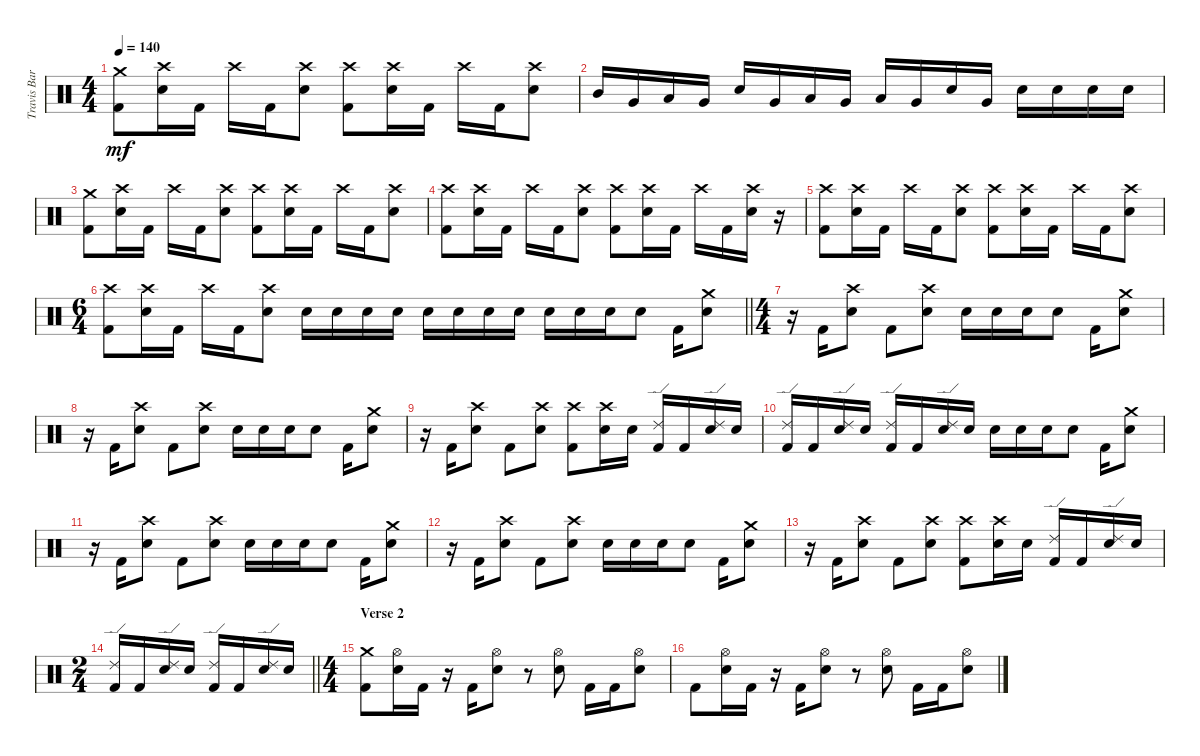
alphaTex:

\track ("Travis Barker" "Travis Bar") {instrument percussion}
\staff {score}
\articulation defaults
\ts (4 4)
\tempo 140
\clef neutral
\ks c
("Crash medium (hit)" "Kick (hit) 2").8{dy mf} ("Crash high (hit)" "Electric Snare (hit)").16 "Kick (hit) 2".16 "Crash high (hit)".16 "Kick (hit) 2".16 ("Crash high (hit)" "Electric Snare (hit)").8 ("Crash high (hit)" "Kick (hit) 2").8 ("Crash high (hit)" "Electric Snare (hit)").16 "Kick (hit) 2".16 "Crash high (hit)".16 "Kick (hit) 2".16 ("Crash high (hit)" "Electric Snare (hit)").8 |
"Mid Tom (hit)".16 "Very Low Tom (hit)".16 "Low Tom (hit)".16 "Very Low Tom (hit)".16 "Electric Snare (hit)".16 "Very Low Tom (hit)".16 "Low Tom (hit)".16 "Very Low Tom (hit)".16 "Low Tom (hit)".16 "Very Low Tom (hit)".16 "Electric Snare (hit)".16 "Very Low Tom (hit)".16 "Electric Snare (hit)".16 "Electric Snare (hit)".16 "Electric Snare (hit)".16 "Electric Snare (hit)".16 |
("Crash medium (hit)" "Kick (hit) 2").8 ("Crash high (hit)" "Electric Snare (hit)").16 "Kick (hit) 2".16 "Crash high (hit)".16 "Kick (hit) 2".16 ("Crash high (hit)" "Electric Snare (hit)").8 ("Crash high (hit)" "Kick (hit) 2").8 ("Crash high (hit)" "Electric Snare (hit)").16 "Kick (hit) 2".16 "Crash high (hit)".16 "Kick (hit) 2".16 ("Crash high (hit)" "Electric Snare (hit)").8 |
("Crash high (hit)" "Kick (hit) 2").8 ("Crash high (hit)" "Electric Snare (hit)").16 "Kick (hit) 2".16 "Crash high (hit)".16 "Kick (hit) 2".16 ("Crash high (hit)" "Electric Snare (hit)").8 ("Crash high (hit)" "Kick (hit) 2").8 ("Crash high (hit)" "Electric Snare (hit)").16 "Kick (hit) 2".16 "Crash high (hit)".16 "Kick (hit) 2".16 ("Crash high (hit)" "Electric Snare (hit)").16 r.16 |
("Crash high (hit)" "Kick (hit) 2").8 ("Crash high (hit)" "Electric Snare (hit)").16 "Kick (hit) 2".16 "Crash high (hit)".16 "Kick (hit) 2".16 ("Crash high (hit)" "Electric Snare (hit)").8 ("Crash high (hit)" "Kick (hit) 2").8 ("Crash high (hit)" "Electric Snare (hit)").16 "Kick (hit) 2".16 "Crash high (hit)".16 "Kick (hit) 2".16 ("Crash high (hit)" "Electric Snare (hit)").8 |
\ts (6 4)
\barLineRight lightlight
("Crash high (hit)" "Kick (hit) 2").8 ("Crash high (hit)" "Electric Snare (hit)").16 "Kick (hit) 2".16 "Crash high (hit)".16 "Kick (hit) 2".16 ("Crash high (hit)" "Electric Snare (hit)").8 "Electric Snare (hit)".16 "Electric Snare (hit)".16 "Electric Snare (hit)".16 "Electric Snare (hit)".16 "Electric Snare (hit)".16 "Electric Snare (hit)".16 "Electric Snare (hit)".16 "Electric Snare (hit)".16 "Electric Snare (hit)".16 "Electric Snare (hit)".16 "Electric Snare (hit)".16 "Electric Snare (hit)".8 "Kick (hit) 2".16 ("Crash medium (hit)" "Electric Snare (hit)").8 |
\ts (4 4)
\section ("" "")
r.16 "Kick (hit) 2".16 ("Crash high (hit)" "Electric Snare (hit)").8 "Kick (hit) 2".8 ("Crash high (hit)" "Electric Snare (hit)").8 "Electric Snare (hit)".16 "Electric Snare (hit)".16 "Electric Snare (hit)".16 "Electric Snare (hit)".8 "Kick (hit) 2".16 ("Crash medium (hit)" "Electric Snare (hit)").8 |
r.16 "Kick (hit) 2".16 ("Crash high (hit)" "Electric Snare (hit)").8 "Kick (hit) 2".8 ("Crash high (hit)" "Electric Snare (hit)").8 "Electric Snare (hit)".16 "Electric Snare (hit)".16 "Electric Snare (hit)".16 "Electric Snare (hit)".8 "Kick (hit) 2".16 ("Crash medium (hit)" "Electric Snare (hit)").8 |
r.16 "Kick (hit) 2".16 ("Crash high (hit)" "Electric Snare (hit)").8 "Kick (hit) 2".8 ("Crash high (hit)" "Electric Snare (hit)").8 ("Crash high (hit)" "Kick (hit) 2").8 ("Crash high (hit)" "Electric Snare (hit)").16 "Electric Snare (hit)".16 ("Ride (edge) 2" "Kick (hit) 2").16 "Kick (hit) 2".16 ("Ride (edge) 2" "Electric Snare (hit)").16 "Electric Snare (hit)".16 |
("Ride (edge) 2" "Kick (hit) 2").16 "Kick (hit) 2".16 ("Ride (edge) 2" "Electric Snare (hit)").16 "Electric Snare (hit)".16 ("Ride (edge) 2" "Kick (hit) 2").16 "Kick (hit) 2".16 ("Ride (edge) 2" "Electric Snare (hit)").16 "Electric Snare (hit)".16 "Electric Snare (hit)".16 "Electric Snare (hit)".16 "Electric Snare (hit)".16 "Electric Snare (hit)".8 "Kick (hit) 2".16 ("Crash medium (hit)" "Electric Snare (hit)").8 |
r.16 "Kick (hit) 2".16 ("Crash high (hit)" "Electric Snare (hit)").8 "Kick (hit) 2".8 ("Crash high (hit)" "Electric Snare (hit)").8 "Electric Snare (hit)".16 "Electric Snare (hit)".16 "Electric Snare (hit)".16 "Electric Snare (hit)".8 "Kick (hit) 2".16 ("Crash medium (hit)" "Electric Snare (hit)").8 |
r.16 "Kick (hit) 2".16 ("Crash high (hit)" "Electric Snare (hit)").8 "Kick (hit) 2".8 ("Crash high (hit)" "Electric Snare (hit)").8 "Electric Snare (hit)".16 "Electric Snare (hit)".16 "Electric Snare (hit)".16 "Electric Snare (hit)".8 "Kick (hit) 2".16 ("Crash medium (hit)" "Electric Snare (hit)").8 |
r.16 "Kick (hit) 2".16 ("Crash high (hit)" "Electric Snare (hit)").8 "Kick (hit) 2".8 ("Crash high (hit)" "Electric Snare (hit)").8 ("Crash high (hit)" "Kick (hit) 2").8 ("Crash high (hit)" "Electric Snare (hit)").16 "Electric Snare (hit)".16 ("Ride (edge) 2" "Kick (hit) 2").16 "Kick (hit) 2".16 ("Ride (edge) 2" "Electric Snare (hit)").16 "Electric Snare (hit)".16 |
\ts (2 4)
\barLineRight lightlight
("Ride (edge) 2" "Kick (hit) 2").16 "Kick (hit) 2".16 ("Ride (edge) 2" "Electric Snare (hit)").16 "Electric Snare (hit)".16 ("Ride (edge) 2" "Kick (hit) 2").16 "Kick (hit) 2".16 ("Ride (edge) 2" "Electric Snare (hit)").16 "Electric Snare (hit)".16 |
\ts (4 4)
\section ("" "Verse 2")
("Crash medium (hit)" "Kick (hit) 2").8 ("Hi-Hat (open)" "Electric Snare (hit)").16 "Kick (hit) 2".16 r.16 "Kick (hit) 2".16 ("Hi-Hat (open)" "Electric Snare (hit)").8 r.8 ("Hi-Hat (open)" "Electric Snare (hit)").8 "Kick (hit) 2".16 "Kick (hit) 2".16 ("Hi-Hat (open)" "Electric Snare (hit)").8 |
"Kick (hit) 2".8 ("Hi-Hat (open)" "Electric Snare (hit)").16 "Kick (hit) 2".16 r.16 "Kick (hit) 2".16 ("Hi-Hat (open)" "Electric Snare (hit)").8 r.8 ("Hi-Hat (open)" "Electric Snare (hit)").8 "Kick (hit) 2".16 "Kick (hit) 2".16 ("Hi-Hat (open)" "Electric Snare (hit)").8
